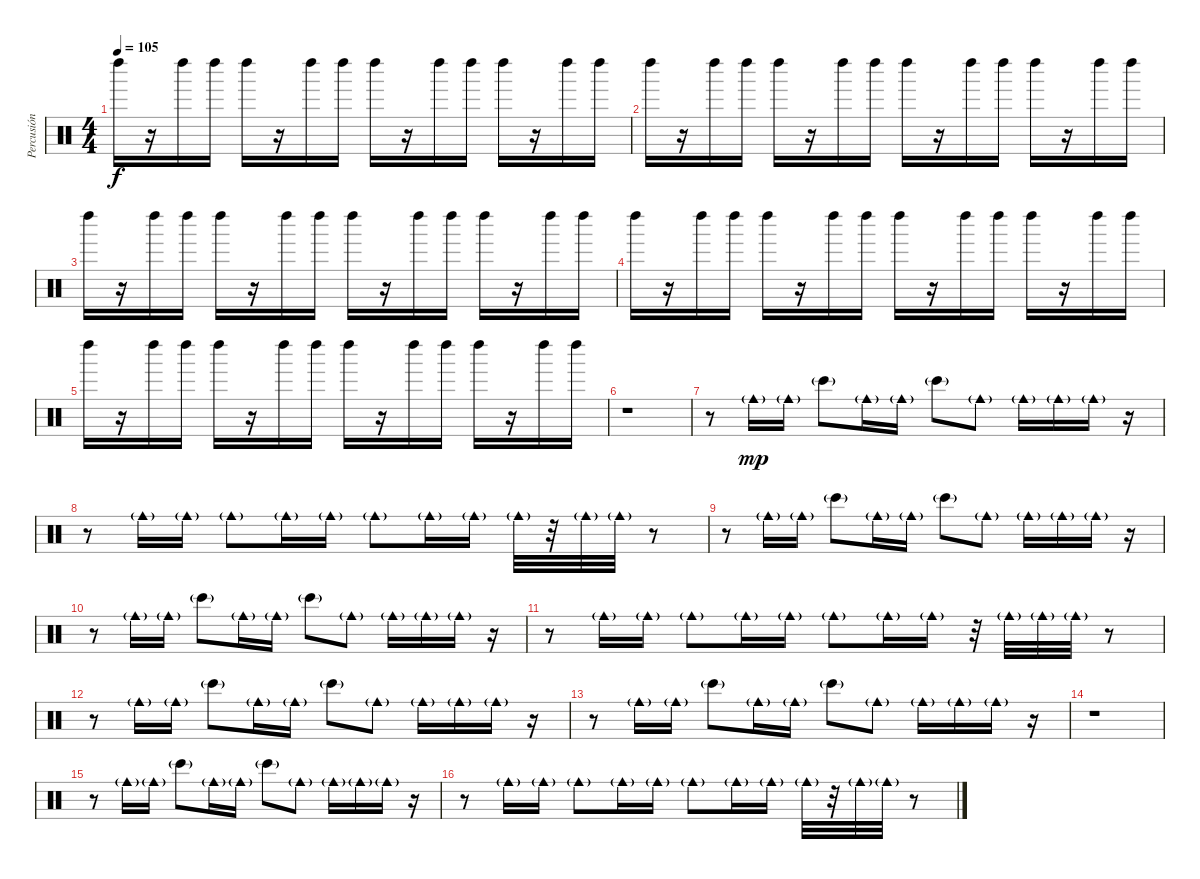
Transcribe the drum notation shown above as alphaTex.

\track ("Percusión" "Percusión") {instrument percussion}
\staff {score}
\articulation defaults
\ts (4 4)
\tempo 105
\clef neutral
\ks c "Left Maraca (hit)".16{dy f}
r.16 "Left Maraca (hit)".16 "Left Maraca (hit)".16 "Left Maraca (hit)".16 r.16 "Left Maraca (hit)".16 "Left Maraca (hit)".16 "Left Maraca (hit)".16 r.16 "Left Maraca (hit)".16 "Left Maraca (hit)".16 "Left Maraca (hit)".16 r.16 "Left Maraca (hit)".16 "Left Maraca (hit)".16 |
"Left Maraca (hit)".16 r.16 "Left Maraca (hit)".16 "Left Maraca (hit)".16 "Left Maraca (hit)".16 r.16 "Left Maraca (hit)".16 "Left Maraca (hit)".16 "Left Maraca (hit)".16 r.16 "Left Maraca (hit)".16 "Left Maraca (hit)".16 "Left Maraca (hit)".16 r.16 "Left Maraca (hit)".16 "Left Maraca (hit)".16 |
"Left Maraca (hit)".16 r.16 "Left Maraca (hit)".16 "Left Maraca (hit)".16 "Left Maraca (hit)".16 r.16 "Left Maraca (hit)".16 "Left Maraca (hit)".16 "Left Maraca (hit)".16 r.16 "Left Maraca (hit)".16 "Left Maraca (hit)".16 "Left Maraca (hit)".16 r.16 "Left Maraca (hit)".16 "Left Maraca (hit)".16 |
"Left Maraca (hit)".16 r.16 "Left Maraca (hit)".16 "Left Maraca (hit)".16 "Left Maraca (hit)".16 r.16 "Left Maraca (hit)".16 "Left Maraca (hit)".16 "Left Maraca (hit)".16 r.16 "Left Maraca (hit)".16 "Left Maraca (hit)".16 "Left Maraca (hit)".16 r.16 "Left Maraca (hit)".16 "Left Maraca (hit)".16 |
"Left Maraca (hit)".16 r.16 "Left Maraca (hit)".16 "Left Maraca (hit)".16 "Left Maraca (hit)".16 r.16 "Left Maraca (hit)".16 "Left Maraca (hit)".16 "Left Maraca (hit)".16 r.16 "Left Maraca (hit)".16 "Left Maraca (hit)".16 "Left Maraca (hit)".16 r.16 "Left Maraca (hit)".16 "Left Maraca (hit)".16 |
r.1 |
r.8 "Cowbell medium (hit)"{g}.16{dy mp} "Cowbell medium (hit)"{g}.16 "Bongo High (hit)"{g}.8 "Cowbell medium (hit)"{g}.16 "Cowbell medium (hit)"{g}.16 "Bongo High (hit)"{g}.8 "Cowbell medium (hit)"{g}.8 "Cowbell medium (hit)"{g}.16 "Cowbell medium (hit)"{g}.16 "Cowbell medium (hit)"{g}.16 r.16 |
r.8 "Cowbell medium (hit)"{g}.16 "Cowbell medium (hit)"{g}.16 "Cowbell medium (hit)"{g}.8 "Cowbell medium (hit)"{g}.16 "Cowbell medium (hit)"{g}.16 "Cowbell medium (hit)"{g}.8 "Cowbell medium (hit)"{g}.16 "Cowbell medium (hit)"{g}.16 "Cowbell medium (hit)"{g}.32 r.32 "Cowbell medium (hit)"{g}.32 "Cowbell medium (hit)"{g}.32 r.8 |
r.8 "Cowbell medium (hit)"{g}.16 "Cowbell medium (hit)"{g}.16 "Bongo High (hit)"{g}.8 "Cowbell medium (hit)"{g}.16 "Cowbell medium (hit)"{g}.16 "Bongo High (hit)"{g}.8 "Cowbell medium (hit)"{g}.8 "Cowbell medium (hit)"{g}.16 "Cowbell medium (hit)"{g}.16 "Cowbell medium (hit)"{g}.16 r.16 |
r.8 "Cowbell medium (hit)"{g}.16 "Cowbell medium (hit)"{g}.16 "Bongo High (hit)"{g}.8 "Cowbell medium (hit)"{g}.16 "Cowbell medium (hit)"{g}.16 "Bongo High (hit)"{g}.8 "Cowbell medium (hit)"{g}.8 "Cowbell medium (hit)"{g}.16 "Cowbell medium (hit)"{g}.16 "Cowbell medium (hit)"{g}.16 r.16 |
r.8 "Cowbell medium (hit)"{g}.16 "Cowbell medium (hit)"{g}.16 "Cowbell medium (hit)"{g}.8 "Cowbell medium (hit)"{g}.16 "Cowbell medium (hit)"{g}.16 "Cowbell medium (hit)"{g}.8 "Cowbell medium (hit)"{g}.16 "Cowbell medium (hit)"{g}.16 r.32 "Cowbell medium (hit)"{g}.32 "Cowbell medium (hit)"{g}.32 "Cowbell medium (hit)"{g}.32 r.8 |
r.8 "Cowbell medium (hit)"{g}.16 "Cowbell medium (hit)"{g}.16 "Bongo High (hit)"{g}.8 "Cowbell medium (hit)"{g}.16 "Cowbell medium (hit)"{g}.16 "Bongo High (hit)"{g}.8 "Cowbell medium (hit)"{g}.8 "Cowbell medium (hit)"{g}.16 "Cowbell medium (hit)"{g}.16 "Cowbell medium (hit)"{g}.16 r.16 |
r.8 "Cowbell medium (hit)"{g}.16 "Cowbell medium (hit)"{g}.16 "Bongo High (hit)"{g}.8 "Cowbell medium (hit)"{g}.16 "Cowbell medium (hit)"{g}.16 "Bongo High (hit)"{g}.8 "Cowbell medium (hit)"{g}.8 "Cowbell medium (hit)"{g}.16 "Cowbell medium (hit)"{g}.16 "Cowbell medium (hit)"{g}.16 r.16 |
r.1 |
r.8 "Cowbell medium (hit)"{g}.16 "Cowbell medium (hit)"{g}.16 "Bongo High (hit)"{g}.8 "Cowbell medium (hit)"{g}.16 "Cowbell medium (hit)"{g}.16 "Bongo High (hit)"{g}.8 "Cowbell medium (hit)"{g}.8 "Cowbell medium (hit)"{g}.16 "Cowbell medium (hit)"{g}.16 "Cowbell medium (hit)"{g}.16 r.16 |
r.8 "Cowbell medium (hit)"{g}.16 "Cowbell medium (hit)"{g}.16 "Cowbell medium (hit)"{g}.8 "Cowbell medium (hit)"{g}.16 "Cowbell medium (hit)"{g}.16 "Cowbell medium (hit)"{g}.8 "Cowbell medium (hit)"{g}.16 "Cowbell medium (hit)"{g}.16 "Cowbell medium (hit)"{g}.32 r.32 "Cowbell medium (hit)"{g}.32 "Cowbell medium (hit)"{g}.32 r.8
